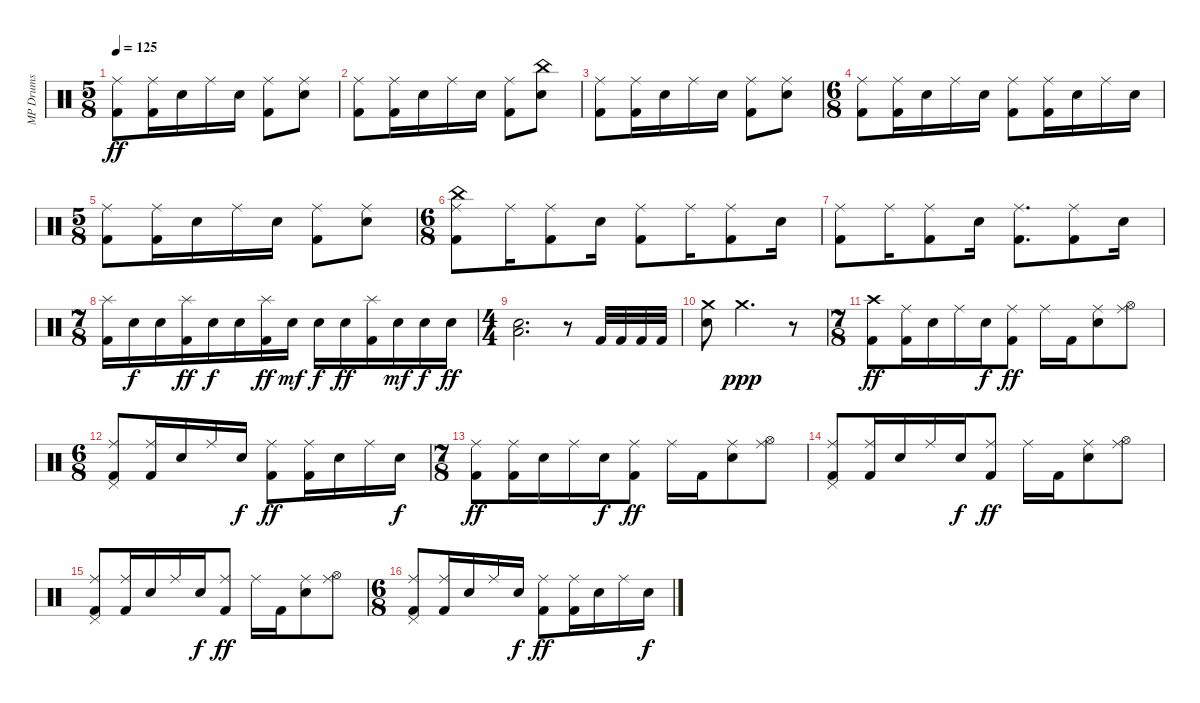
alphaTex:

\track ("MP Drums" "MP Drums") {instrument percussion}
\staff {score}
\articulation defaults
\ts (5 8)
\tempo 125
\clef neutral
\ks c
("Ride (middle)" "Kick (hit) 2").8{dy ff} ("Ride (middle)" "Kick (hit) 2").16 "Snare (hit) 2".16 "Ride (middle)".16 "Snare (hit) 2".16 ("Ride (middle)" "Kick (hit) 2").8 ("Ride (middle)" "Snare (hit) 2").8 |
("Ride (middle)" "Kick (hit) 2").8 ("Ride (middle)" "Kick (hit) 2").16 "Snare (hit) 2".16 "Ride (middle)".16 "Snare (hit) 2".16 ("Ride (middle)" "Kick (hit) 2").8 ("China (hit)" "Snare (hit) 2").8 |
("Ride (middle)" "Kick (hit) 2").8 ("Ride (middle)" "Kick (hit) 2").16 "Snare (hit) 2".16 "Ride (middle)".16 "Snare (hit) 2".16 ("Ride (middle)" "Kick (hit) 2").8 ("Ride (middle)" "Snare (hit) 2").8 |
\ts (6 8)
("Ride (middle)" "Kick (hit) 2").8 ("Ride (middle)" "Kick (hit) 2").16 "Snare (hit) 2".16 "Ride (middle)".16 "Snare (hit) 2".16 ("Ride (middle)" "Kick (hit) 2").8 ("Ride (middle)" "Kick (hit) 2").16 "Snare (hit) 2".16 "Ride (middle)".16 "Snare (hit) 2".16 |
\ts (5 8)
("Ride (middle)" "Kick (hit) 2").8 ("Ride (middle)" "Kick (hit) 2").16 "Snare (hit) 2".16 "Ride (middle)".16 "Snare (hit) 2".16 ("Ride (middle)" "Kick (hit) 2").8 ("Ride (middle)" "Snare (hit) 2").8 |
\ts (6 8)
("China (hit)" "Ride (middle)" "Kick (hit) 2").8 "Ride (middle)".16 ("Ride (middle)" "Kick (hit) 2").8 "Snare (hit) 2".16 ("Ride (middle)" "Kick (hit) 2").8 "Ride (middle)".16 ("Ride (middle)" "Kick (hit) 2").8 "Snare (hit) 2".16 |
("Ride (middle)" "Kick (hit) 2").8 "Ride (middle)".16 ("Ride (middle)" "Kick (hit) 2").8 "Snare (hit) 2".16 ("Ride (middle)" "Kick (hit) 2").8{d} ("Ride (middle)" "Kick (hit) 2").8 "Snare (hit) 2".16 |
\ts (7 8)
("Splash (hit)" "Kick (hit) 2").16 "Snare (hit) 2".16{dy f} "Snare (hit) 2".16 ("Splash (hit)" "Kick (hit) 2").16{dy ff} "Snare (hit) 2".16{dy f} "Snare (hit) 2".16 ("Splash (hit)" "Kick (hit) 2").16{dy ff} "Snare (hit) 2".16{dy mf} "Snare (hit) 2".16{dy f} "Snare (hit) 2".16{dy ff} ("Splash (hit)" "Kick (hit) 2").16 "Snare (hit) 2".16{dy mf} "Snare (hit) 2".16{dy f} "Snare (hit) 2".16{dy ff} |
\ts (4 4)
("Low Floor Tom (hit)" "Snare (hit) 2").2{d} r.8 "Kick (hit) 2".32 "Kick (hit) 2".32 "Kick (hit) 2".32 "Kick (hit) 2".32 |
("Crash medium (hit)" "Snare (hit) 2").8 "Crash medium (hit)".2{d dy ppp} r.8 |
\ts (7 8)
("Crash high (hit)" "Kick (hit) 2").8{dy ff} ("Ride (middle)" "Kick (hit) 2").16 "Snare (hit) 2".16 "Ride (middle)".16 "Snare (hit) 2".16{dy f} ("Ride (middle)" "Kick (hit) 2").8{dy ff} "Ride (middle)".16 "Kick (hit) 2".16 ("Ride (middle)" "Snare (hit) 2").8 ("Ride (middle)" "Hi-Hat (open)").8 |
\ts (6 8)
("Ride (middle)" "Pedal Hi-Hat (hit)" "Kick (hit) 2").8 ("Ride (middle)" "Kick (hit) 2").16 "Snare (hit) 2".16 "Ride (middle)".16 "Snare (hit) 2".16{dy f} ("Ride (middle)" "Kick (hit) 2").8{dy ff} ("Ride (middle)" "Kick (hit) 2").16 "Snare (hit) 2".16 "Ride (middle)".16 "Snare (hit) 2".16{dy f} |
\ts (7 8)
("Ride (middle)" "Kick (hit) 2").8{dy ff} ("Ride (middle)" "Kick (hit) 2").16 "Snare (hit) 2".16 "Ride (middle)".16 "Snare (hit) 2".16{dy f} ("Ride (middle)" "Kick (hit) 2").8{dy ff} "Ride (middle)".16 "Kick (hit) 2".16 ("Ride (middle)" "Snare (hit) 2").8 ("Ride (middle)" "Hi-Hat (open)").8 |
("Ride (middle)" "Pedal Hi-Hat (hit)" "Kick (hit) 2").8 ("Ride (middle)" "Kick (hit) 2").16 "Snare (hit) 2".16 "Ride (middle)".16 "Snare (hit) 2".16{dy f} ("Ride (middle)" "Kick (hit) 2").8{dy ff} "Ride (middle)".16 "Kick (hit) 2".16 ("Ride (middle)" "Snare (hit) 2").8 ("Ride (middle)" "Hi-Hat (open)").8 |
("Ride (middle)" "Pedal Hi-Hat (hit)" "Kick (hit) 2").8 ("Ride (middle)" "Kick (hit) 2").16 "Snare (hit) 2".16 "Ride (middle)".16 "Snare (hit) 2".16{dy f} ("Ride (middle)" "Kick (hit) 2").8{dy ff} "Ride (middle)".16 "Kick (hit) 2".16 ("Ride (middle)" "Snare (hit) 2").8 ("Ride (middle)" "Hi-Hat (open)").8 |
\ts (6 8)
("Ride (middle)" "Pedal Hi-Hat (hit)" "Kick (hit) 2").8 ("Ride (middle)" "Kick (hit) 2").16 "Snare (hit) 2".16 "Ride (middle)".16 "Snare (hit) 2".16{dy f} ("Ride (middle)" "Kick (hit) 2").8{dy ff} ("Ride (middle)" "Kick (hit) 2").16 "Snare (hit) 2".16 "Ride (middle)".16 "Snare (hit) 2".16{dy f}
